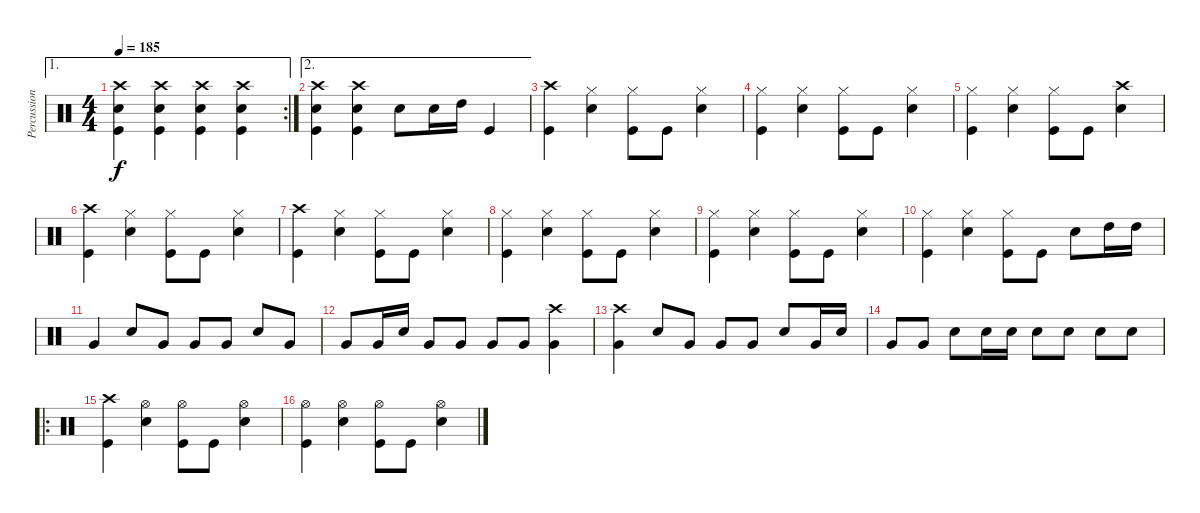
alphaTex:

\track ("Percussion" "Percussion") {instrument percussion}
\staff {score}
\articulation defaults
\ae 1
\rc 2
\ts (4 4)
\tempo 185
\clef neutral
\ks c
("Crash high (hit)" "Snare (hit) 2" "Kick (hit)").4{dy f} ("Crash high (hit)" "Snare (hit) 2" "Kick (hit)").4 ("Crash high (hit)" "Snare (hit) 2" "Kick (hit)").4 ("Crash high (hit)" "Snare (hit) 2" "Kick (hit)").4 |
\ae 2
("Crash high (hit)" "Snare (hit) 2" "Kick (hit)").4 ("Crash high (hit)" "Snare (hit) 2" "Kick (hit)").4 "Snare (hit) 2".8 "Snare (hit) 2".16 "High Tom (hit)".16 "Kick (hit)".4 |
("Crash high (hit)" "Kick (hit)").4 ("Hi-Hat (closed)" "Snare (hit) 2").4 ("Hi-Hat (closed)" "Kick (hit)").8 "Kick (hit)".8 ("Hi-Hat (closed)" "Snare (hit) 2").4 |
("Hi-Hat (closed)" "Kick (hit)").4 ("Hi-Hat (closed)" "Snare (hit) 2").4 ("Hi-Hat (closed)" "Kick (hit)").8 "Kick (hit)".8 ("Hi-Hat (closed)" "Snare (hit) 2").4 |
("Hi-Hat (closed)" "Kick (hit)").4 ("Hi-Hat (closed)" "Snare (hit) 2").4 ("Hi-Hat (closed)" "Kick (hit)").8 "Kick (hit)".8 ("Crash high (hit)" "Snare (hit) 2").4 |
("Crash high (hit)" "Kick (hit)").4 ("Hi-Hat (closed)" "Snare (hit) 2").4 ("Hi-Hat (closed)" "Kick (hit)").8 "Kick (hit)".8 ("Hi-Hat (closed)" "Snare (hit) 2").4 |
("Crash high (hit)" "Kick (hit)").4 ("Hi-Hat (closed)" "Snare (hit) 2").4 ("Hi-Hat (closed)" "Kick (hit)").8 "Kick (hit)".8 ("Hi-Hat (closed)" "Snare (hit) 2").4 |
("Hi-Hat (closed)" "Kick (hit)").4 ("Hi-Hat (closed)" "Snare (hit) 2").4 ("Hi-Hat (closed)" "Kick (hit)").8 "Kick (hit)".8 ("Hi-Hat (closed)" "Snare (hit) 2").4 |
("Hi-Hat (closed)" "Kick (hit)").4 ("Hi-Hat (closed)" "Snare (hit) 2").4 ("Hi-Hat (closed)" "Kick (hit)").8 "Kick (hit)".8 ("Hi-Hat (closed)" "Snare (hit) 2").4 |
("Hi-Hat (closed)" "Kick (hit)").4 ("Hi-Hat (closed)" "Snare (hit) 2").4 ("Hi-Hat (closed)" "Kick (hit)").8 "Kick (hit)".8 "Snare (hit) 2".8 "High Tom (hit)".16 "High Tom (hit)".16 |
"Very Low Tom (hit)".4 "Snare (hit) 2".8 "Very Low Tom (hit)".8 "Very Low Tom (hit)".8 "Very Low Tom (hit)".8 "Snare (hit) 2".8 "Very Low Tom (hit)".8 |
"Very Low Tom (hit)".8 "Very Low Tom (hit)".16 "Snare (hit) 2".16 "Very Low Tom (hit)".8 "Very Low Tom (hit)".8 "Very Low Tom (hit)".8 "Very Low Tom (hit)".8 ("Very Low Tom (hit)" "Crash high (hit)").4 |
("Very Low Tom (hit)" "Crash high (hit)").4 "Snare (hit) 2".8 "Very Low Tom (hit)".8 "Very Low Tom (hit)".8 "Very Low Tom (hit)".8 "Snare (hit) 2".8 "Very Low Tom (hit)".16 "Snare (hit) 2".16 |
"Very Low Tom (hit)".8 "Very Low Tom (hit)".8 "Snare (hit) 2".8 "Snare (hit) 2".16 "Snare (hit) 2".16 "Snare (hit) 2".8 "Snare (hit) 2".8 "Snare (hit) 2".8 "Snare (hit) 2".8 |
\ro
("Crash high (hit)" "Kick (hit)").4 ("Hi-Hat (open)" "Snare (hit) 2").4 ("Hi-Hat (open)" "Kick (hit)").8 "Kick (hit)".8 ("Hi-Hat (open)" "Snare (hit) 2").4 |
("Hi-Hat (open)" "Kick (hit)").4 ("Hi-Hat (open)" "Snare (hit) 2").4 ("Hi-Hat (open)" "Kick (hit)").8 "Kick (hit)".8 ("Hi-Hat (open)" "Snare (hit) 2").4
